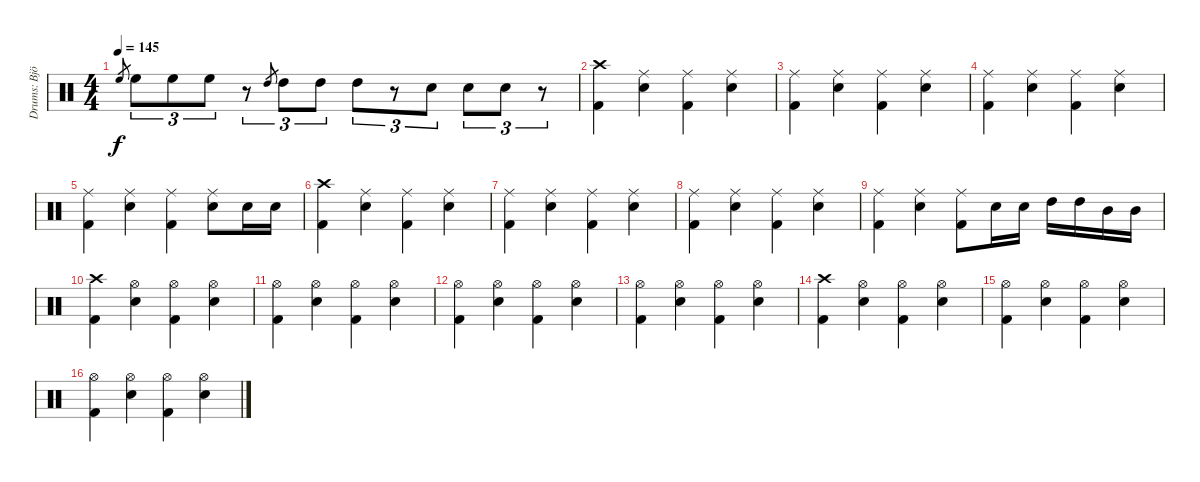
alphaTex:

\track ("Drums: Björn Fryklund" "Drums: Bjö") {instrument percussion}
\staff {score}
\articulation defaults
\ts (4 4)
\tempo 145
\clef neutral
\ks c "High Floor Tom (hit)".8{gr dy f} "High Floor Tom (hit)".8{tu (3 2)} "High Floor Tom (hit)".8{tu (3 2)} "High Floor Tom (hit)".8{tu (3 2)}
r.8{tu (3 2)} "High Tom (hit)".8{gr} "High Tom (hit)".8{tu (3 2)} "High Tom (hit)".8{tu (3 2)} "High Tom (hit)".8{tu (3 2)} r.8{tu (3 2)} "Snare (hit) 2".8{tu (3 2)} "Snare (hit) 2".8{tu (3 2)} "Snare (hit) 2".8{tu (3 2)} r.8{tu (3 2)} |
("Crash high (hit)" "Kick (hit) 2").4 ("Ride (middle)" "Snare (hit) 2").4 ("Ride (middle)" "Kick (hit) 2").4 ("Ride (middle)" "Snare (hit) 2").4 |
("Ride (middle)" "Kick (hit) 2").4 ("Ride (middle)" "Snare (hit) 2").4 ("Ride (middle)" "Kick (hit) 2").4 ("Ride (middle)" "Snare (hit) 2").4 |
("Ride (middle)" "Kick (hit) 2").4 ("Ride (middle)" "Snare (hit) 2").4 ("Ride (middle)" "Kick (hit) 2").4 ("Ride (middle)" "Snare (hit) 2").4 |
("Ride (middle)" "Kick (hit) 2").4 ("Ride (middle)" "Snare (hit) 2").4 ("Ride (middle)" "Kick (hit) 2").4 ("Ride (middle)" "Snare (hit) 2").8 "Snare (hit) 2".16 "Snare (hit) 2".16 |
("Crash high (hit)" "Kick (hit) 2").4 ("Ride (middle)" "Snare (hit) 2").4 ("Ride (middle)" "Kick (hit) 2").4 ("Ride (middle)" "Snare (hit) 2").4 |
("Ride (middle)" "Kick (hit) 2").4 ("Ride (middle)" "Snare (hit) 2").4 ("Ride (middle)" "Kick (hit) 2").4 ("Ride (middle)" "Snare (hit) 2").4 |
("Ride (middle)" "Kick (hit) 2").4 ("Ride (middle)" "Snare (hit) 2").4 ("Ride (middle)" "Kick (hit) 2").4 ("Ride (middle)" "Snare (hit) 2").4 |
("Ride (middle)" "Kick (hit) 2").4 ("Ride (middle)" "Snare (hit) 2").4 ("Ride (middle)" "Kick (hit) 2").8 "Snare (hit) 2".16 "Snare (hit) 2".16 "High Tom (hit)".16 "High Tom (hit)".16 "Mid Tom (hit)".16 "Mid Tom (hit)".16 |
("Crash high (hit)" "Kick (hit) 2").4 ("Hi-Hat (open)" "Snare (hit) 2").4 ("Hi-Hat (open)" "Kick (hit) 2").4 ("Hi-Hat (open)" "Snare (hit) 2").4 |
("Hi-Hat (open)" "Kick (hit) 2").4 ("Hi-Hat (open)" "Snare (hit) 2").4 ("Hi-Hat (open)" "Kick (hit) 2").4 ("Hi-Hat (open)" "Snare (hit) 2").4 |
("Hi-Hat (open)" "Kick (hit) 2").4 ("Hi-Hat (open)" "Snare (hit) 2").4 ("Hi-Hat (open)" "Kick (hit) 2").4 ("Hi-Hat (open)" "Snare (hit) 2").4 |
("Hi-Hat (open)" "Kick (hit) 2").4 ("Hi-Hat (open)" "Snare (hit) 2").4 ("Hi-Hat (open)" "Kick (hit) 2").4 ("Hi-Hat (open)" "Snare (hit) 2").4 |
("Crash high (hit)" "Kick (hit) 2").4 ("Hi-Hat (open)" "Snare (hit) 2").4 ("Hi-Hat (open)" "Kick (hit) 2").4 ("Hi-Hat (open)" "Snare (hit) 2").4 |
("Hi-Hat (open)" "Kick (hit) 2").4 ("Hi-Hat (open)" "Snare (hit) 2").4 ("Hi-Hat (open)" "Kick (hit) 2").4 ("Hi-Hat (open)" "Snare (hit) 2").4 |
("Hi-Hat (open)" "Kick (hit) 2").4 ("Hi-Hat (open)" "Snare (hit) 2").4 ("Hi-Hat (open)" "Kick (hit) 2").4 ("Hi-Hat (open)" "Snare (hit) 2").4
